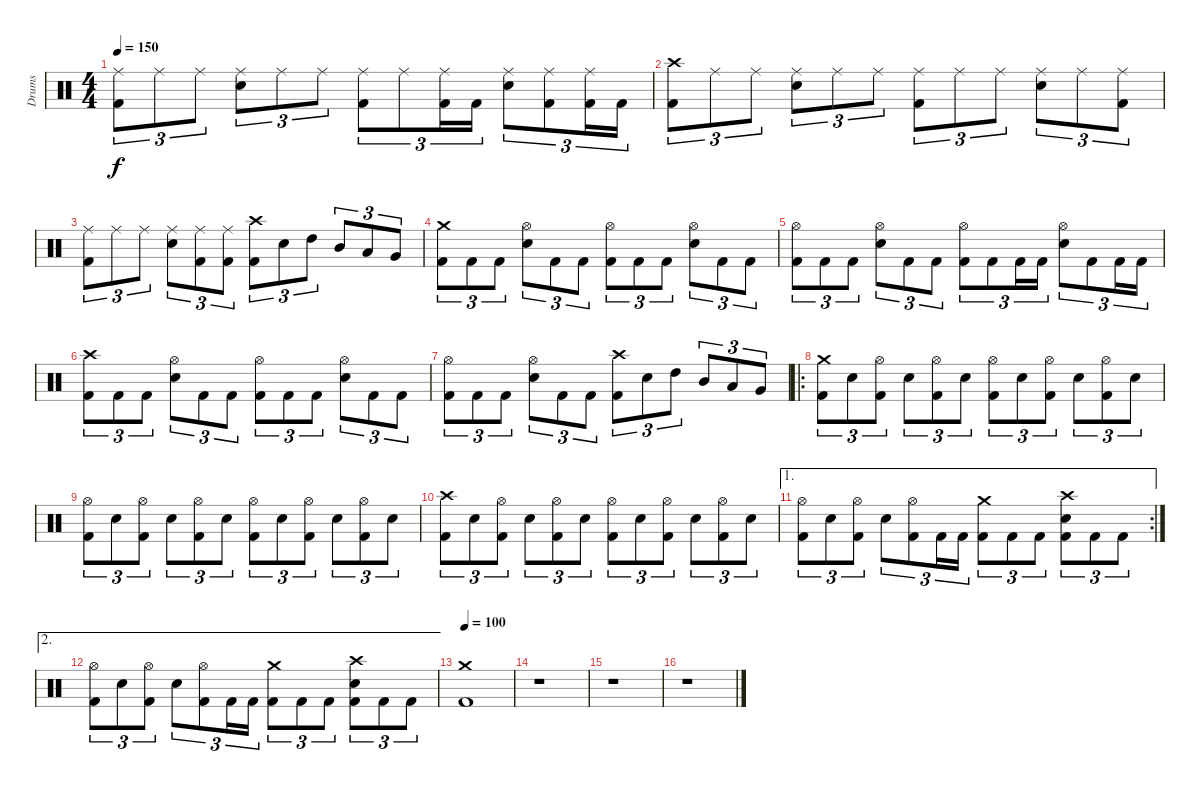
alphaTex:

\track ("Drums" "Drums") {instrument percussion}
\staff {score}
\articulation defaults
\ts (4 4)
\tempo 150
\clef neutral
\ks c
("Kick (hit) 2" "Ride (middle)").8{tu (3 2) dy f} "Ride (middle)".8{tu (3 2)} "Ride (middle)".8{tu (3 2)} ("Electric Snare (hit)" "Ride (middle)").8{tu (3 2)} "Ride (middle)".8{tu (3 2)} "Ride (middle)".8{tu (3 2)} ("Kick (hit) 2" "Ride (middle)").8{tu (3 2)} "Ride (middle)".8{tu (3 2)} ("Kick (hit) 2" "Ride (middle)").16{tu (3 2)} "Kick (hit) 2".16{tu (3 2)} ("Electric Snare (hit)" "Ride (middle)").8{tu (3 2)} ("Kick (hit) 2" "Ride (middle)").8{tu (3 2)} ("Kick (hit) 2" "Ride (middle)").16{tu (3 2)} "Kick (hit) 2".16{tu (3 2)} |
("Kick (hit) 2" "Crash high (hit)").8{tu (3 2)} "Ride (middle)".8{tu (3 2)} "Ride (middle)".8{tu (3 2)} ("Electric Snare (hit)" "Ride (middle)").8{tu (3 2)} "Ride (middle)".8{tu (3 2)} "Ride (middle)".8{tu (3 2)} ("Kick (hit) 2" "Ride (middle)").8{tu (3 2)} "Ride (middle)".8{tu (3 2)} "Ride (middle)".8{tu (3 2)} ("Electric Snare (hit)" "Ride (middle)").8{tu (3 2)} "Ride (middle)".8{tu (3 2)} ("Kick (hit) 2" "Ride (middle)").8{tu (3 2)} |
("Kick (hit) 2" "Ride (middle)").8{tu (3 2)} "Ride (middle)".8{tu (3 2)} "Ride (middle)".8{tu (3 2)} ("Electric Snare (hit)" "Ride (middle)").8{tu (3 2)} ("Kick (hit) 2" "Ride (middle)").8{tu (3 2)} ("Kick (hit) 2" "Ride (middle)").8{tu (3 2)} ("Kick (hit) 2" "Crash high (hit)").8{tu (3 2)} "Electric Snare (hit)".8{tu (3 2)} "High Tom (hit)".8{tu (3 2)} "Mid Tom (hit)".8{tu (3 2)} "Low Tom (hit)".8{tu (3 2)} "Very Low Tom (hit)".8{tu (3 2)} |
("Kick (hit) 2" "Crash medium (hit)").8{tu (3 2)} "Kick (hit) 2".8{tu (3 2)} "Kick (hit) 2".8{tu (3 2)} ("Electric Snare (hit)" "Hi-Hat (open)").8{tu (3 2)} "Kick (hit) 2".8{tu (3 2)} "Kick (hit) 2".8{tu (3 2)} ("Kick (hit) 2" "Hi-Hat (open)").8{tu (3 2)} "Kick (hit) 2".8{tu (3 2)} "Kick (hit) 2".8{tu (3 2)} ("Electric Snare (hit)" "Hi-Hat (open)").8{tu (3 2)} "Kick (hit) 2".8{tu (3 2)} "Kick (hit) 2".8{tu (3 2)} |
("Kick (hit) 2" "Hi-Hat (open)").8{tu (3 2)} "Kick (hit) 2".8{tu (3 2)} "Kick (hit) 2".8{tu (3 2)} ("Electric Snare (hit)" "Hi-Hat (open)").8{tu (3 2)} "Kick (hit) 2".8{tu (3 2)} "Kick (hit) 2".8{tu (3 2)} ("Kick (hit) 2" "Hi-Hat (open)").8{tu (3 2)} "Kick (hit) 2".8{tu (3 2)} "Kick (hit) 2".16{tu (3 2)} "Kick (hit) 2".16{tu (3 2)} ("Electric Snare (hit)" "Hi-Hat (open)").8{tu (3 2)} "Kick (hit) 2".8{tu (3 2)} "Kick (hit) 2".16{tu (3 2)} "Kick (hit) 2".16{tu (3 2)} |
("Kick (hit) 2" "Crash high (hit)").8{tu (3 2)} "Kick (hit) 2".8{tu (3 2)} "Kick (hit) 2".8{tu (3 2)} ("Electric Snare (hit)" "Hi-Hat (open)").8{tu (3 2)} "Kick (hit) 2".8{tu (3 2)} "Kick (hit) 2".8{tu (3 2)} ("Kick (hit) 2" "Hi-Hat (open)").8{tu (3 2)} "Kick (hit) 2".8{tu (3 2)} "Kick (hit) 2".8{tu (3 2)} ("Electric Snare (hit)" "Hi-Hat (open)").8{tu (3 2)} "Kick (hit) 2".8{tu (3 2)} "Kick (hit) 2".8{tu (3 2)} |
("Kick (hit) 2" "Hi-Hat (open)").8{tu (3 2)} "Kick (hit) 2".8{tu (3 2)} "Kick (hit) 2".8{tu (3 2)} ("Electric Snare (hit)" "Hi-Hat (open)").8{tu (3 2)} "Kick (hit) 2".8{tu (3 2)} "Kick (hit) 2".8{tu (3 2)} ("Kick (hit) 2" "Crash high (hit)").8{tu (3 2)} "Electric Snare (hit)".8{tu (3 2)} "High Tom (hit)".8{tu (3 2)} "Mid Tom (hit)".8{tu (3 2)} "Low Tom (hit)".8{tu (3 2)} "Very Low Tom (hit)".8{tu (3 2)} |
\ro
("Kick (hit) 2" "Crash medium (hit)").8{tu (3 2)} "Electric Snare (hit)".8{tu (3 2)} ("Kick (hit) 2" "Hi-Hat (open)").8{tu (3 2)} "Electric Snare (hit)".8{tu (3 2)} ("Kick (hit) 2" "Hi-Hat (open)").8{tu (3 2)} "Electric Snare (hit)".8{tu (3 2)} ("Kick (hit) 2" "Hi-Hat (open)").8{tu (3 2)} "Electric Snare (hit)".8{tu (3 2)} ("Kick (hit) 2" "Hi-Hat (open)").8{tu (3 2)} "Electric Snare (hit)".8{tu (3 2)} ("Kick (hit) 2" "Hi-Hat (open)").8{tu (3 2)} "Electric Snare (hit)".8{tu (3 2)} |
("Kick (hit) 2" "Hi-Hat (open)").8{tu (3 2)} "Electric Snare (hit)".8{tu (3 2)} ("Kick (hit) 2" "Hi-Hat (open)").8{tu (3 2)} "Electric Snare (hit)".8{tu (3 2)} ("Kick (hit) 2" "Hi-Hat (open)").8{tu (3 2)} "Electric Snare (hit)".8{tu (3 2)} ("Kick (hit) 2" "Hi-Hat (open)").8{tu (3 2)} "Electric Snare (hit)".8{tu (3 2)} ("Kick (hit) 2" "Hi-Hat (open)").8{tu (3 2)} "Electric Snare (hit)".8{tu (3 2)} ("Kick (hit) 2" "Hi-Hat (open)").8{tu (3 2)} "Electric Snare (hit)".8{tu (3 2)} |
("Kick (hit) 2" "Crash high (hit)").8{tu (3 2)} "Electric Snare (hit)".8{tu (3 2)} ("Kick (hit) 2" "Hi-Hat (open)").8{tu (3 2)} "Electric Snare (hit)".8{tu (3 2)} ("Kick (hit) 2" "Hi-Hat (open)").8{tu (3 2)} "Electric Snare (hit)".8{tu (3 2)} ("Kick (hit) 2" "Hi-Hat (open)").8{tu (3 2)} "Electric Snare (hit)".8{tu (3 2)} ("Kick (hit) 2" "Hi-Hat (open)").8{tu (3 2)} "Electric Snare (hit)".8{tu (3 2)} ("Kick (hit) 2" "Hi-Hat (open)").8{tu (3 2)} "Electric Snare (hit)".8{tu (3 2)} |
\ae 1
\rc 2
("Kick (hit) 2" "Hi-Hat (open)").8{tu (3 2)} "Electric Snare (hit)".8{tu (3 2)} ("Kick (hit) 2" "Hi-Hat (open)").8{tu (3 2)} "Electric Snare (hit)".8{tu (3 2)} ("Kick (hit) 2" "Hi-Hat (open)").8{tu (3 2)} "Kick (hit) 2".16{tu (3 2)} "Kick (hit) 2".16{tu (3 2)} ("Kick (hit) 2" "Crash medium (hit)").8{tu (3 2)} "Kick (hit) 2".8{tu (3 2)} "Kick (hit) 2".8{tu (3 2)} ("Kick (hit) 2" "Electric Snare (hit)" "Crash high (hit)").8{tu (3 2)} "Kick (hit) 2".8{tu (3 2)} "Kick (hit) 2".8{tu (3 2)} |
\ae 2
("Kick (hit) 2" "Hi-Hat (open)").8{tu (3 2)} "Electric Snare (hit)".8{tu (3 2)} ("Kick (hit) 2" "Hi-Hat (open)").8{tu (3 2)} "Electric Snare (hit)".8{tu (3 2)} ("Kick (hit) 2" "Hi-Hat (open)").8{tu (3 2)} "Kick (hit) 2".16{tu (3 2)} "Kick (hit) 2".16{tu (3 2)} ("Kick (hit) 2" "Crash medium (hit)").8{tu (3 2)} "Kick (hit) 2".8{tu (3 2)} "Kick (hit) 2".8{tu (3 2)} ("Kick (hit) 2" "Electric Snare (hit)" "Crash high (hit)").8{tu (3 2)} "Kick (hit) 2".8{tu (3 2)} "Kick (hit) 2".8{tu (3 2)} |
\tempo 100
("Kick (hit) 2" "Crash medium (hit)").1 |
r.1 |
r.1 |
r.1
